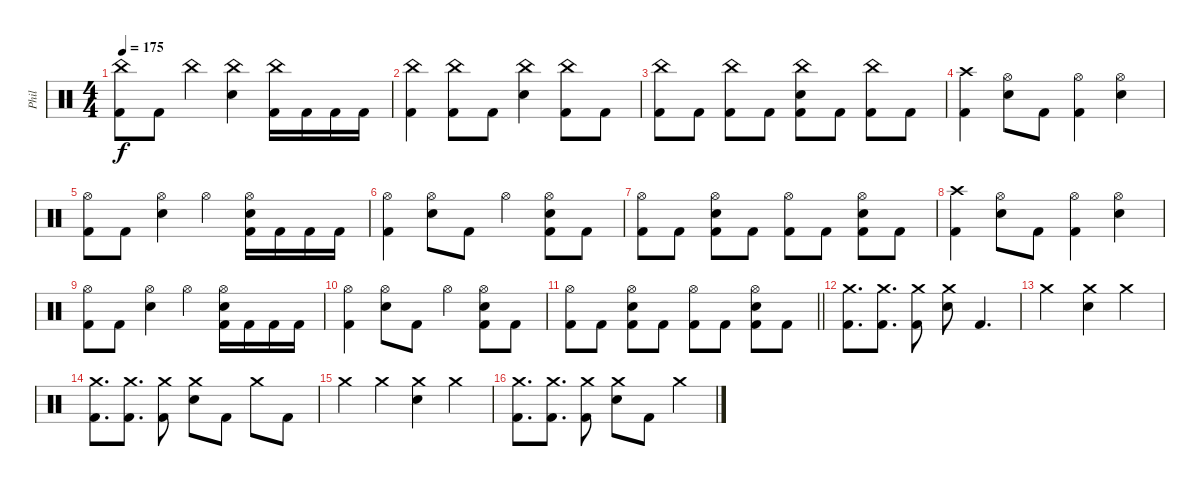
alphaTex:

\track ("Phil" "Phil") {instrument percussion}
\staff {score}
\articulation defaults
\ts (4 4)
\tempo 175
\clef neutral
\ks c
("China (hit)" "Kick (hit) 2").8{dy f} "Kick (hit) 2".8 "China (hit)".4 ("China (hit)" "Electric Snare (hit)").4 ("China (hit)" "Kick (hit) 2").16 "Kick (hit) 2".16 "Kick (hit) 2".16 "Kick (hit) 2".16 |
("China (hit)" "Kick (hit) 2").4 ("China (hit)" "Kick (hit) 2").8 "Kick (hit) 2".8 ("China (hit)" "Electric Snare (hit)").4 ("China (hit)" "Kick (hit) 2").8 "Kick (hit) 2".8 |
("China (hit)" "Kick (hit) 2").8 "Kick (hit) 2".8 ("China (hit)" "Kick (hit) 2").8 "Kick (hit) 2".8 ("China (hit)" "Electric Snare (hit)" "Kick (hit) 2").8 "Kick (hit) 2".8 ("China (hit)" "Kick (hit) 2").8 "Kick (hit) 2".8 |
("Crash high (hit)" "Kick (hit) 2").4 ("Hi-Hat (open)" "Electric Snare (hit)").8 "Kick (hit) 2".8 ("Hi-Hat (open)" "Kick (hit) 2").4 ("Hi-Hat (open)" "Electric Snare (hit)").4 |
("Hi-Hat (open)" "Kick (hit) 2").8 "Kick (hit) 2".8 ("Hi-Hat (open)" "Electric Snare (hit)").4 "Hi-Hat (open)".4 ("Hi-Hat (open)" "Electric Snare (hit)" "Kick (hit) 2").16 "Kick (hit) 2".16 "Kick (hit) 2".16 "Kick (hit) 2".16 |
("Hi-Hat (open)" "Kick (hit) 2").4 ("Hi-Hat (open)" "Electric Snare (hit)").8 "Kick (hit) 2".8 "Hi-Hat (open)".4 ("Hi-Hat (open)" "Electric Snare (hit)" "Kick (hit) 2").8 "Kick (hit) 2".8 |
("Hi-Hat (open)" "Kick (hit) 2").8 "Kick (hit) 2".8 ("Hi-Hat (open)" "Electric Snare (hit)" "Kick (hit) 2").8 "Kick (hit) 2".8 ("Hi-Hat (open)" "Kick (hit) 2").8 "Kick (hit) 2".8 ("Hi-Hat (open)" "Electric Snare (hit)" "Kick (hit) 2").8 "Kick (hit) 2".8 |
("Crash high (hit)" "Kick (hit) 2").4 ("Hi-Hat (open)" "Electric Snare (hit)").8 "Kick (hit) 2".8 ("Hi-Hat (open)" "Kick (hit) 2").4 ("Hi-Hat (open)" "Electric Snare (hit)").4 |
("Hi-Hat (open)" "Kick (hit) 2").8 "Kick (hit) 2".8 ("Hi-Hat (open)" "Electric Snare (hit)").4 "Hi-Hat (open)".4 ("Hi-Hat (open)" "Electric Snare (hit)" "Kick (hit) 2").16 "Kick (hit) 2".16 "Kick (hit) 2".16 "Kick (hit) 2".16 |
("Hi-Hat (open)" "Kick (hit) 2").4 ("Hi-Hat (open)" "Electric Snare (hit)").8 "Kick (hit) 2".8 "Hi-Hat (open)".4 ("Hi-Hat (open)" "Electric Snare (hit)" "Kick (hit) 2").8 "Kick (hit) 2".8 |
\barLineRight lightlight
("Hi-Hat (open)" "Kick (hit) 2").8 "Kick (hit) 2".8 ("Hi-Hat (open)" "Electric Snare (hit)" "Kick (hit) 2").8 "Kick (hit) 2".8 ("Hi-Hat (open)" "Kick (hit) 2").8 "Kick (hit) 2".8 ("Hi-Hat (open)" "Electric Snare (hit)" "Kick (hit) 2").8 "Kick (hit) 2".8 |
("Crash medium (hit)" "Kick (hit) 2").8{d} ("Crash medium (hit)" "Kick (hit) 2").8{d} ("Crash medium (hit)" "Kick (hit) 2").8 ("Crash medium (hit)" "Electric Snare (hit)").8 "Kick (hit) 2".4{d} |
"Crash medium (hit)".2 ("Crash medium (hit)" "Electric Snare (hit)").4 "Crash medium (hit)".4 |
("Crash medium (hit)" "Kick (hit) 2").8{d} ("Crash medium (hit)" "Kick (hit) 2").8{d} ("Crash medium (hit)" "Kick (hit) 2").8 ("Crash medium (hit)" "Electric Snare (hit)").8 "Kick (hit) 2".8 "Crash medium (hit)".8 "Kick (hit) 2".8 |
"Crash medium (hit)".4 "Crash medium (hit)".4 ("Crash medium (hit)" "Electric Snare (hit)").4 "Crash medium (hit)".4 |
("Crash medium (hit)" "Kick (hit) 2").8{d} ("Crash medium (hit)" "Kick (hit) 2").8{d} ("Crash medium (hit)" "Kick (hit) 2").8 ("Crash medium (hit)" "Electric Snare (hit)").8 "Kick (hit) 2".8 "Crash medium (hit)".4
